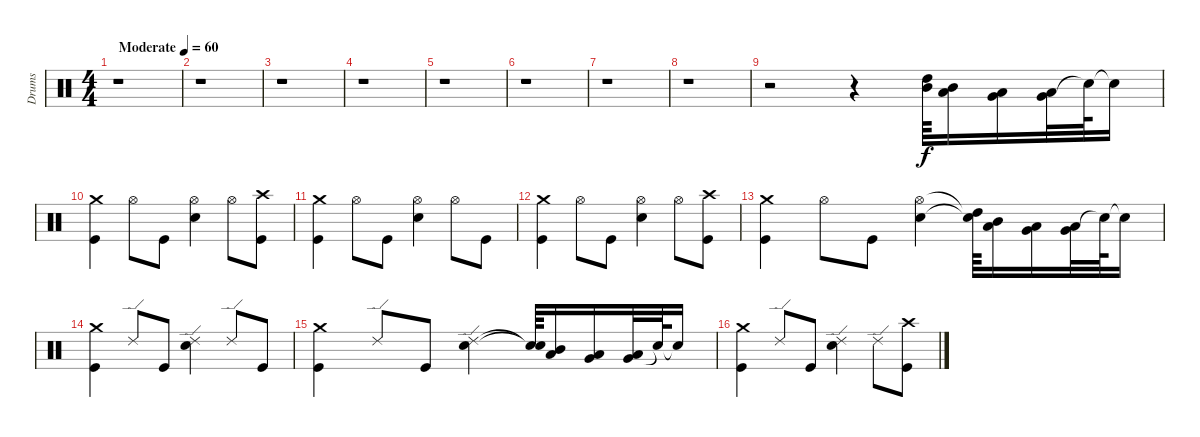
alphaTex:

\track ("Drums" "Drums") {instrument percussion}
\staff {score}
\articulation defaults
\ts (4 4)
\tempo (60 "Moderate")
\clef neutral
\ks c
r.1{dy f} |
r.1 |
r.1 |
r.1 |
r.1 |
r.1 |
r.1 |
r.1 |
r.2 r.4 ("High Tom (hit)" "Mid Tom (hit)").64 ("Mid Tom (hit)" "Low Tom (hit)").16 ("Low Tom (hit)" "Very Low Tom (hit)").16 ("Very Low Tom (hit)" "Low Floor Tom (hit)").32 "Snare (hit)"{t}.64 "Snare (hit)"{t}.16 |
("Crash medium (hit)" "Kick (hit)").4 "Hi-Hat (open)".8 "Kick (hit)".8 ("Hi-Hat (open)" "Snare (hit) 2").4 "Hi-Hat (open)".8 ("Crash high (hit)" "Kick (hit)").8 |
("Crash medium (hit)" "Kick (hit)").4 "Hi-Hat (open)".8 "Kick (hit)".8 ("Hi-Hat (open)" "Snare (hit) 2").4 "Hi-Hat (open)".8 "Kick (hit)".8 |
("Crash medium (hit)" "Kick (hit)").4 "Hi-Hat (open)".8 "Kick (hit)".8 ("Hi-Hat (open)" "Snare (hit) 2").4 "Hi-Hat (open)".8 ("Crash high (hit)" "Kick (hit)").8 |
("Crash medium (hit)" "Kick (hit)").4 "Hi-Hat (open)".8 "Kick (hit)".8 ("Hi-Hat (open)" "Snare (hit) 2").4 ("High Tom (hit)"{t} "Snare (hit)"{t}).64 ("Mid Tom (hit)" "Low Tom (hit)").16 ("Low Tom (hit)" "Very Low Tom (hit)").16 ("Very Low Tom (hit)" "Low Floor Tom (hit)").32 "Snare (hit)"{t}.64 "Snare (hit)"{t}.16 |
("Crash medium (hit)" "Kick (hit)").4 "Ride (edge) 2".8 "Kick (hit)".8 ("Ride (edge) 2" "Snare (hit) 2").4 "Ride (edge) 2".8 "Kick (hit)".8 |
("Crash medium (hit)" "Kick (hit)").4 "Ride (edge) 2".8 "Kick (hit)".8 ("Ride (edge) 2" "Snare (hit) 2").4 ("Snare (hit)"{t} "Snare (hit)"{t}).64 ("Mid Tom (hit)" "Low Tom (hit)").16 ("Low Tom (hit)" "Very Low Tom (hit)").16 ("Very Low Tom (hit)" "Low Floor Tom (hit)").32 "Snare (hit)"{t}.64 "Snare (hit)"{t}.16 |
("Crash medium (hit)" "Kick (hit)").4 "Ride (edge) 2".8 "Kick (hit)".8 ("Ride (edge) 2" "Snare (hit) 2").4 "Ride (edge) 2".8 ("Crash high (hit)" "Kick (hit)").8
